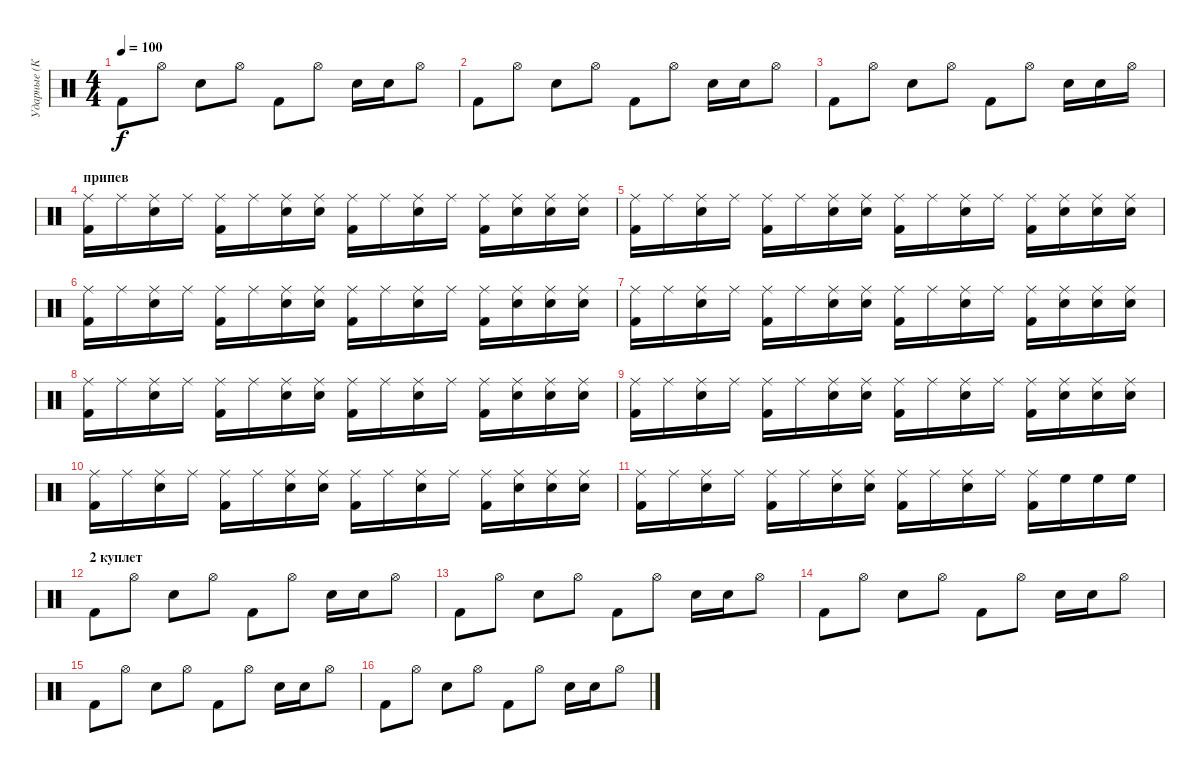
\track ("Ударные (Котов)" "Ударные (К") {instrument percussion}
\staff {score}
\articulation defaults
\ts (4 4)
\tempo 100
\clef neutral
\ks c "Kick (hit) 2".8{dy f} "Hi-Hat (open)".8 "Snare (hit) 2".8 "Hi-Hat (open)".8 "Kick (hit) 2".8 "Hi-Hat (open)".8 "Snare (hit) 2".16 "Snare (hit) 2".16 "Hi-Hat (open)".8
|
"Kick (hit) 2".8 "Hi-Hat (open)".8 "Snare (hit) 2".8 "Hi-Hat (open)".8 "Kick (hit) 2".8 "Hi-Hat (open)".8 "Snare (hit) 2".16 "Snare (hit) 2".16 "Hi-Hat (open)".8 |
"Kick (hit) 2".8 "Hi-Hat (open)".8 "Snare (hit) 2".8 "Hi-Hat (open)".8 "Kick (hit) 2".8 "Hi-Hat (open)".8 "Snare (hit) 2".16 "Snare (hit) 2".16 "Hi-Hat (open)".16 |
\section ("" "припев")
("Ride (middle)" "Kick (hit) 2").16 "Ride (middle)".16 ("Ride (middle)" "Snare (hit) 2").16 "Ride (middle)".16 ("Ride (middle)" "Kick (hit) 2").16 "Ride (middle)".16 ("Ride (middle)" "Snare (hit) 2").16 ("Ride (middle)" "Snare (hit) 2").16 ("Ride (middle)" "Kick (hit) 2").16 "Ride (middle)".16 ("Ride (middle)" "Snare (hit) 2").16 "Ride (middle)".16 ("Ride (middle)" "Kick (hit) 2").16 ("Ride (middle)" "Snare (hit) 2").16 ("Ride (middle)" "Snare (hit) 2").16 ("Ride (middle)" "Snare (hit) 2").16 |
("Ride (middle)" "Kick (hit) 2").16 "Ride (middle)".16 ("Ride (middle)" "Snare (hit) 2").16 "Ride (middle)".16 ("Ride (middle)" "Kick (hit) 2").16 "Ride (middle)".16 ("Ride (middle)" "Snare (hit) 2").16 ("Ride (middle)" "Snare (hit) 2").16 ("Ride (middle)" "Kick (hit) 2").16 "Ride (middle)".16 ("Ride (middle)" "Snare (hit) 2").16 "Ride (middle)".16 ("Ride (middle)" "Kick (hit) 2").16 ("Ride (middle)" "Snare (hit) 2").16 ("Ride (middle)" "Snare (hit) 2").16 ("Ride (middle)" "Snare (hit) 2").16 |
("Ride (middle)" "Kick (hit) 2").16 "Ride (middle)".16 ("Ride (middle)" "Snare (hit) 2").16 "Ride (middle)".16 ("Ride (middle)" "Kick (hit) 2").16 "Ride (middle)".16 ("Ride (middle)" "Snare (hit) 2").16 ("Ride (middle)" "Snare (hit) 2").16 ("Ride (middle)" "Kick (hit) 2").16 "Ride (middle)".16 ("Ride (middle)" "Snare (hit) 2").16 "Ride (middle)".16 ("Ride (middle)" "Kick (hit) 2").16 ("Ride (middle)" "Snare (hit) 2").16 ("Ride (middle)" "Snare (hit) 2").16 ("Ride (middle)" "Snare (hit) 2").16 |
("Ride (middle)" "Kick (hit) 2").16 "Ride (middle)".16 ("Ride (middle)" "Snare (hit) 2").16 "Ride (middle)".16 ("Ride (middle)" "Kick (hit) 2").16 "Ride (middle)".16 ("Ride (middle)" "Snare (hit) 2").16 ("Ride (middle)" "Snare (hit) 2").16 ("Ride (middle)" "Kick (hit) 2").16 "Ride (middle)".16 ("Ride (middle)" "Snare (hit) 2").16 "Ride (middle)".16 ("Ride (middle)" "Kick (hit) 2").16 ("Ride (middle)" "Snare (hit) 2").16 ("Ride (middle)" "Snare (hit) 2").16 ("Ride (middle)" "Snare (hit) 2").16 |
("Ride (middle)" "Kick (hit) 2").16 "Ride (middle)".16 ("Ride (middle)" "Snare (hit) 2").16 "Ride (middle)".16 ("Ride (middle)" "Kick (hit) 2").16 "Ride (middle)".16 ("Ride (middle)" "Snare (hit) 2").16 ("Ride (middle)" "Snare (hit) 2").16 ("Ride (middle)" "Kick (hit) 2").16 "Ride (middle)".16 ("Ride (middle)" "Snare (hit) 2").16 "Ride (middle)".16 ("Ride (middle)" "Kick (hit) 2").16 ("Ride (middle)" "Snare (hit) 2").16 ("Ride (middle)" "Snare (hit) 2").16 ("Ride (middle)" "Snare (hit) 2").16 |
("Ride (middle)" "Kick (hit) 2").16 "Ride (middle)".16 ("Ride (middle)" "Snare (hit) 2").16 "Ride (middle)".16 ("Ride (middle)" "Kick (hit) 2").16 "Ride (middle)".16 ("Ride (middle)" "Snare (hit) 2").16 ("Ride (middle)" "Snare (hit) 2").16 ("Ride (middle)" "Kick (hit) 2").16 "Ride (middle)".16 ("Ride (middle)" "Snare (hit) 2").16 "Ride (middle)".16 ("Ride (middle)" "Kick (hit) 2").16 ("Ride (middle)" "Snare (hit) 2").16 ("Ride (middle)" "Snare (hit) 2").16 ("Ride (middle)" "Snare (hit) 2").16 |
("Ride (middle)" "Kick (hit) 2").16 "Ride (middle)".16 ("Ride (middle)" "Snare (hit) 2").16 "Ride (middle)".16 ("Ride (middle)" "Kick (hit) 2").16 "Ride (middle)".16 ("Ride (middle)" "Snare (hit) 2").16 ("Ride (middle)" "Snare (hit) 2").16 ("Ride (middle)" "Kick (hit) 2").16 "Ride (middle)".16 ("Ride (middle)" "Snare (hit) 2").16 "Ride (middle)".16 ("Ride (middle)" "Kick (hit) 2").16 ("Ride (middle)" "Snare (hit) 2").16 ("Ride (middle)" "Snare (hit) 2").16 ("Ride (middle)" "Snare (hit) 2").16 |
("Ride (middle)" "Kick (hit) 2").16 "Ride (middle)".16 ("Ride (middle)" "Snare (hit) 2").16 "Ride (middle)".16 ("Ride (middle)" "Kick (hit) 2").16 "Ride (middle)".16 ("Ride (middle)" "Snare (hit) 2").16 ("Ride (middle)" "Snare (hit) 2").16 ("Ride (middle)" "Kick (hit) 2").16 "Ride (middle)".16 ("Ride (middle)" "Snare (hit) 2").16 "Ride (middle)".16 ("Ride (middle)" "Kick (hit) 2").16 "High Floor Tom (hit)".16 "High Floor Tom (hit)".16 "High Floor Tom (hit)".16 |
\section ("" "2 куплет")
"Kick (hit) 2".8 "Hi-Hat (open)".8 "Snare (hit) 2".8 "Hi-Hat (open)".8 "Kick (hit) 2".8 "Hi-Hat (open)".8 "Snare (hit) 2".16 "Snare (hit) 2".16 "Hi-Hat (open)".8 |
"Kick (hit) 2".8 "Hi-Hat (open)".8 "Snare (hit) 2".8 "Hi-Hat (open)".8 "Kick (hit) 2".8 "Hi-Hat (open)".8 "Snare (hit) 2".16 "Snare (hit) 2".16 "Hi-Hat (open)".8 |
"Kick (hit) 2".8 "Hi-Hat (open)".8 "Snare (hit) 2".8 "Hi-Hat (open)".8 "Kick (hit) 2".8 "Hi-Hat (open)".8 "Snare (hit) 2".16 "Snare (hit) 2".16 "Hi-Hat (open)".8 |
"Kick (hit) 2".8 "Hi-Hat (open)".8 "Snare (hit) 2".8 "Hi-Hat (open)".8 "Kick (hit) 2".8 "Hi-Hat (open)".8 "Snare (hit) 2".16 "Snare (hit) 2".16 "Hi-Hat (open)".8 |
"Kick (hit) 2".8 "Hi-Hat (open)".8 "Snare (hit) 2".8 "Hi-Hat (open)".8 "Kick (hit) 2".8 "Hi-Hat (open)".8 "Snare (hit) 2".16 "Snare (hit) 2".16 "Hi-Hat (open)".8
